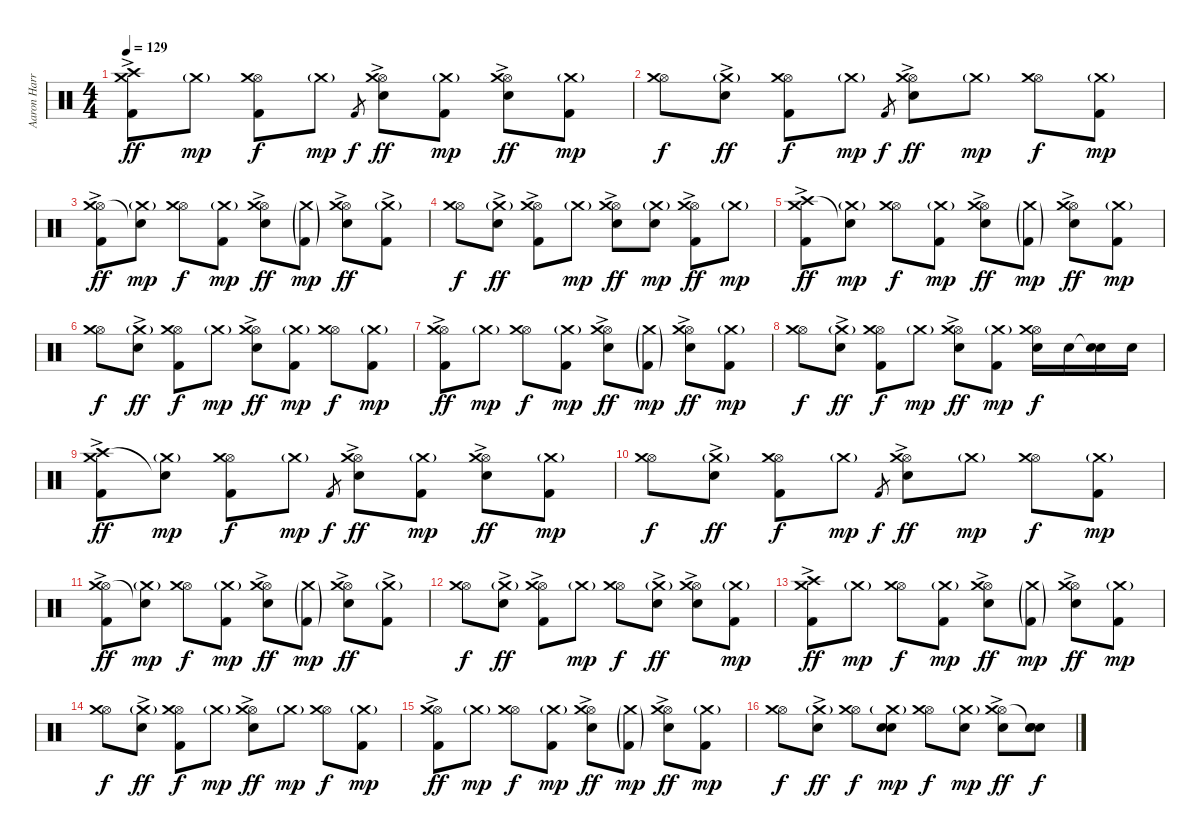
\track ("Aaron Harris" "Aaron Harr") {instrument percussion}
\staff {score}
\articulation defaults
\ts (4 4)
\tempo 129
\clef neutral
\ks c
("Crash high (hit)" "Crash medium (hit)" "Kick (hit) 2"{ac}).8{dy ff} "Crash medium (hit)"{g}.8{dy mp} ("Hi-Hat (open)" "Crash medium (hit)" "Kick (hit) 2").8{dy f} "Crash medium (hit)"{g}.8{dy mp} "Kick (hit) 2".8{gr dy f} ("Hi-Hat (open)" "Crash medium (hit)" "Snare (hit) 2"{ac}).8{dy ff} ("Crash medium (hit)"{g} "Kick (hit) 2").8{dy mp} ("Hi-Hat (open)" "Crash medium (hit)" "Snare (hit) 2"{ac}).8{dy ff} ("Crash medium (hit)"{g} "Kick (hit) 2").8{dy mp} |
("Hi-Hat (open)" "Crash medium (hit)").8{dy f} ("Crash medium (hit)"{g} "Snare (hit) 2"{ac}).8{dy ff} ("Hi-Hat (open)" "Crash medium (hit)" "Kick (hit) 2").8{dy f} "Crash medium (hit)"{g}.8{dy mp} "Kick (hit) 2".8{gr dy f} ("Hi-Hat (open)" "Crash medium (hit)" "Snare (hit) 2"{ac}).8{dy ff} "Crash medium (hit)"{g}.8{dy mp} ("Hi-Hat (open)" "Crash medium (hit)").8{dy f} ("Crash medium (hit)"{g} "Kick (hit) 2").8{dy mp} |
("Hi-Hat (open)" "Crash medium (hit)" "Kick (hit) 2"{ac}).8{dy ff} ("Snare (hit)"{t} "Crash medium (hit)"{g}).8{dy mp} ("Hi-Hat (open)" "Crash medium (hit)").8{dy f} ("Crash medium (hit)"{g} "Kick (hit) 2").8{dy mp} ("Hi-Hat (open)" "Crash medium (hit)" "Snare (hit) 2"{ac}).8{dy ff} ("Crash medium (hit)"{g} "Kick (hit) 2"{g}).8{dy mp} ("Hi-Hat (open)" "Crash medium (hit)" "Snare (hit) 2"{ac}).8{dy ff} ("Crash medium (hit)"{g} "Kick (hit) 2"{ac}).8 |
("Hi-Hat (open)" "Crash medium (hit)").8{dy f} ("Crash medium (hit)"{g} "Snare (hit) 2"{ac}).8{dy ff} ("Hi-Hat (open)" "Crash medium (hit)" "Kick (hit) 2"{ac}).8 "Crash medium (hit)"{g}.8{dy mp} ("Hi-Hat (open)" "Crash medium (hit)" "Snare (hit) 2"{ac}).8{dy ff} ("Crash medium (hit)"{g} "Snare (hit) 2").8{dy mp} ("Hi-Hat (open)" "Crash medium (hit)" "Kick (hit) 2"{ac}).8{dy ff} "Crash medium (hit)"{g}.8{dy mp} |
("Crash high (hit)" "Crash medium (hit)" "Kick (hit) 2"{ac}).8{dy ff} ("Snare (hit)"{t} "Crash medium (hit)"{g}).8{dy mp} ("Hi-Hat (open)" "Crash medium (hit)").8{dy f} ("Crash medium (hit)"{g} "Kick (hit) 2").8{dy mp} ("Hi-Hat (open)" "Crash medium (hit)" "Snare (hit) 2"{ac}).8{dy ff} ("Crash medium (hit)"{g} "Kick (hit) 2"{g}).8{dy mp} ("Hi-Hat (open)" "Crash medium (hit)" "Snare (hit) 2"{ac}).8{dy ff} ("Crash medium (hit)"{g} "Kick (hit) 2").8{dy mp} |
("Hi-Hat (open)" "Crash medium (hit)").8{dy f} ("Crash medium (hit)"{g} "Snare (hit) 2"{ac}).8{dy ff} ("Hi-Hat (open)" "Crash medium (hit)" "Kick (hit) 2").8{dy f} "Crash medium (hit)"{g}.8{dy mp} ("Hi-Hat (open)" "Crash medium (hit)" "Snare (hit) 2"{ac}).8{dy ff} ("Crash medium (hit)"{g} "Kick (hit) 2").8{dy mp} ("Hi-Hat (open)" "Crash medium (hit)").8{dy f} ("Crash medium (hit)"{g} "Kick (hit) 2").8{dy mp} |
("Hi-Hat (open)" "Crash medium (hit)" "Kick (hit) 2"{ac}).8{dy ff} "Crash medium (hit)"{g}.8{dy mp} ("Hi-Hat (open)" "Crash medium (hit)").8{dy f} ("Crash medium (hit)"{g} "Kick (hit) 2").8{dy mp} ("Hi-Hat (open)" "Crash medium (hit)" "Snare (hit) 2"{ac}).8{dy ff} ("Crash medium (hit)"{g} "Kick (hit) 2"{g}).8{dy mp} ("Hi-Hat (open)" "Crash medium (hit)" "Snare (hit) 2"{ac}).8{dy ff} ("Crash medium (hit)"{g} "Kick (hit) 2").8{dy mp} |
("Hi-Hat (open)" "Crash medium (hit)").8{dy f} ("Crash medium (hit)"{g} "Snare (hit) 2"{ac}).8{dy ff} ("Hi-Hat (open)" "Crash medium (hit)" "Kick (hit) 2").8{dy f} "Crash medium (hit)"{g}.8{dy mp} ("Hi-Hat (open)" "Crash medium (hit)" "Snare (hit) 2"{ac}).8{dy ff} ("Crash medium (hit)"{g} "Kick (hit) 2").8{dy mp} ("Hi-Hat (open)" "Crash medium (hit)" "Snare (hit) 2").16{dy f} "Snare (hit) 2".16 ("Snare (hit)"{t} "Snare (hit) 2").16 "Snare (hit) 2".16 |
("Crash high (hit)" "Crash medium (hit)" "Kick (hit) 2"{ac}).8{dy ff} ("Snare (hit)"{t} "Crash medium (hit)"{g}).8{dy mp} ("Hi-Hat (open)" "Crash medium (hit)" "Kick (hit) 2").8{dy f} "Crash medium (hit)"{g}.8{dy mp} "Kick (hit) 2".8{gr dy f} ("Hi-Hat (open)" "Crash medium (hit)" "Snare (hit) 2"{ac}).8{dy ff} ("Crash medium (hit)"{g} "Kick (hit) 2").8{dy mp} ("Hi-Hat (open)" "Crash medium (hit)" "Snare (hit) 2"{ac}).8{dy ff} ("Crash medium (hit)"{g} "Kick (hit) 2").8{dy mp} |
("Hi-Hat (open)" "Crash medium (hit)").8{dy f} ("Crash medium (hit)"{g} "Snare (hit) 2"{ac}).8{dy ff} ("Hi-Hat (open)" "Crash medium (hit)" "Kick (hit) 2").8{dy f} "Crash medium (hit)"{g}.8{dy mp} "Kick (hit) 2".8{gr dy f} ("Hi-Hat (open)" "Crash medium (hit)" "Snare (hit) 2"{ac}).8{dy ff} "Crash medium (hit)"{g}.8{dy mp} ("Hi-Hat (open)" "Crash medium (hit)").8{dy f} ("Crash medium (hit)"{g} "Kick (hit) 2").8{dy mp} |
("Hi-Hat (open)" "Crash medium (hit)" "Kick (hit) 2"{ac}).8{dy ff} ("Snare (hit)"{t} "Crash medium (hit)"{g}).8{dy mp} ("Hi-Hat (open)" "Crash medium (hit)").8{dy f} ("Crash medium (hit)"{g} "Kick (hit) 2").8{dy mp} ("Hi-Hat (open)" "Crash medium (hit)" "Snare (hit) 2"{ac}).8{dy ff} ("Crash medium (hit)"{g} "Kick (hit) 2"{g}).8{dy mp} ("Hi-Hat (open)" "Crash medium (hit)" "Snare (hit) 2"{ac}).8{dy ff} ("Crash medium (hit)"{g} "Kick (hit) 2"{ac}).8 |
("Hi-Hat (open)" "Crash medium (hit)").8{dy f} ("Crash medium (hit)"{g} "Snare (hit) 2"{ac}).8{dy ff} ("Hi-Hat (open)" "Crash medium (hit)" "Kick (hit) 2"{ac}).8 "Crash medium (hit)"{g}.8{dy mp} ("Hi-Hat (open)" "Crash medium (hit)").8{dy f} ("Crash medium (hit)"{g} "Snare (hit) 2"{ac}).8{dy ff} ("Hi-Hat (open)" "Crash medium (hit)" "Snare (hit) 2"{ac}).8 ("Crash medium (hit)"{g} "Kick (hit) 2").8{dy mp} |
("Crash high (hit)" "Crash medium (hit)" "Kick (hit) 2"{ac}).8{dy ff} "Crash medium (hit)"{g}.8{dy mp} ("Hi-Hat (open)" "Crash medium (hit)").8{dy f} ("Crash medium (hit)"{g} "Kick (hit) 2").8{dy mp} ("Hi-Hat (open)" "Crash medium (hit)" "Snare (hit) 2"{ac}).8{dy ff} ("Crash medium (hit)"{g} "Kick (hit) 2"{g}).8{dy mp} ("Hi-Hat (open)" "Crash medium (hit)" "Snare (hit) 2"{ac}).8{dy ff} ("Crash medium (hit)"{g} "Kick (hit) 2").8{dy mp} |
("Hi-Hat (open)" "Crash medium (hit)").8{dy f} ("Crash medium (hit)"{g} "Snare (hit) 2"{ac}).8{dy ff} ("Hi-Hat (open)" "Crash medium (hit)" "Kick (hit) 2").8{dy f} "Crash medium (hit)"{g}.8{dy mp} ("Hi-Hat (open)" "Crash medium (hit)" "Snare (hit) 2"{ac}).8{dy ff} "Crash medium (hit)"{g}.8{dy mp} ("Hi-Hat (open)" "Crash medium (hit)").8{dy f} ("Crash medium (hit)"{g} "Kick (hit) 2").8{dy mp} |
("Hi-Hat (open)" "Crash medium (hit)" "Kick (hit) 2"{ac}).8{dy ff} "Crash medium (hit)"{g}.8{dy mp} ("Hi-Hat (open)" "Crash medium (hit)").8{dy f} ("Crash medium (hit)"{g} "Kick (hit) 2").8{dy mp} ("Hi-Hat (open)" "Crash medium (hit)" "Snare (hit) 2"{ac}).8{dy ff} ("Crash medium (hit)"{g} "Kick (hit) 2"{g}).8{dy mp} ("Hi-Hat (open)" "Crash medium (hit)" "Snare (hit) 2"{ac}).8{dy ff} ("Crash medium (hit)"{g} "Kick (hit) 2").8{dy mp} |
("Hi-Hat (open)" "Crash medium (hit)").8{dy f} ("Crash medium (hit)"{g} "Snare (hit) 2"{ac}).8{dy ff} ("Hi-Hat (open)" "Crash medium (hit)").8{dy f} ("Crash medium (hit)"{g} "Snare (hit) 2" "Electric Snare (hit)").8{dy mp} ("Hi-Hat (open)" "Crash medium (hit)").8{dy f} ("Crash medium (hit)"{g} "Snare (hit) 2").8{dy mp} ("Hi-Hat (open)" "Crash medium (hit)" "Snare (hit) 2"{ac}).8{dy ff} ("Snare (hit)"{t} "Snare (hit) 2" "Electric Snare (hit)").8{dy f}
